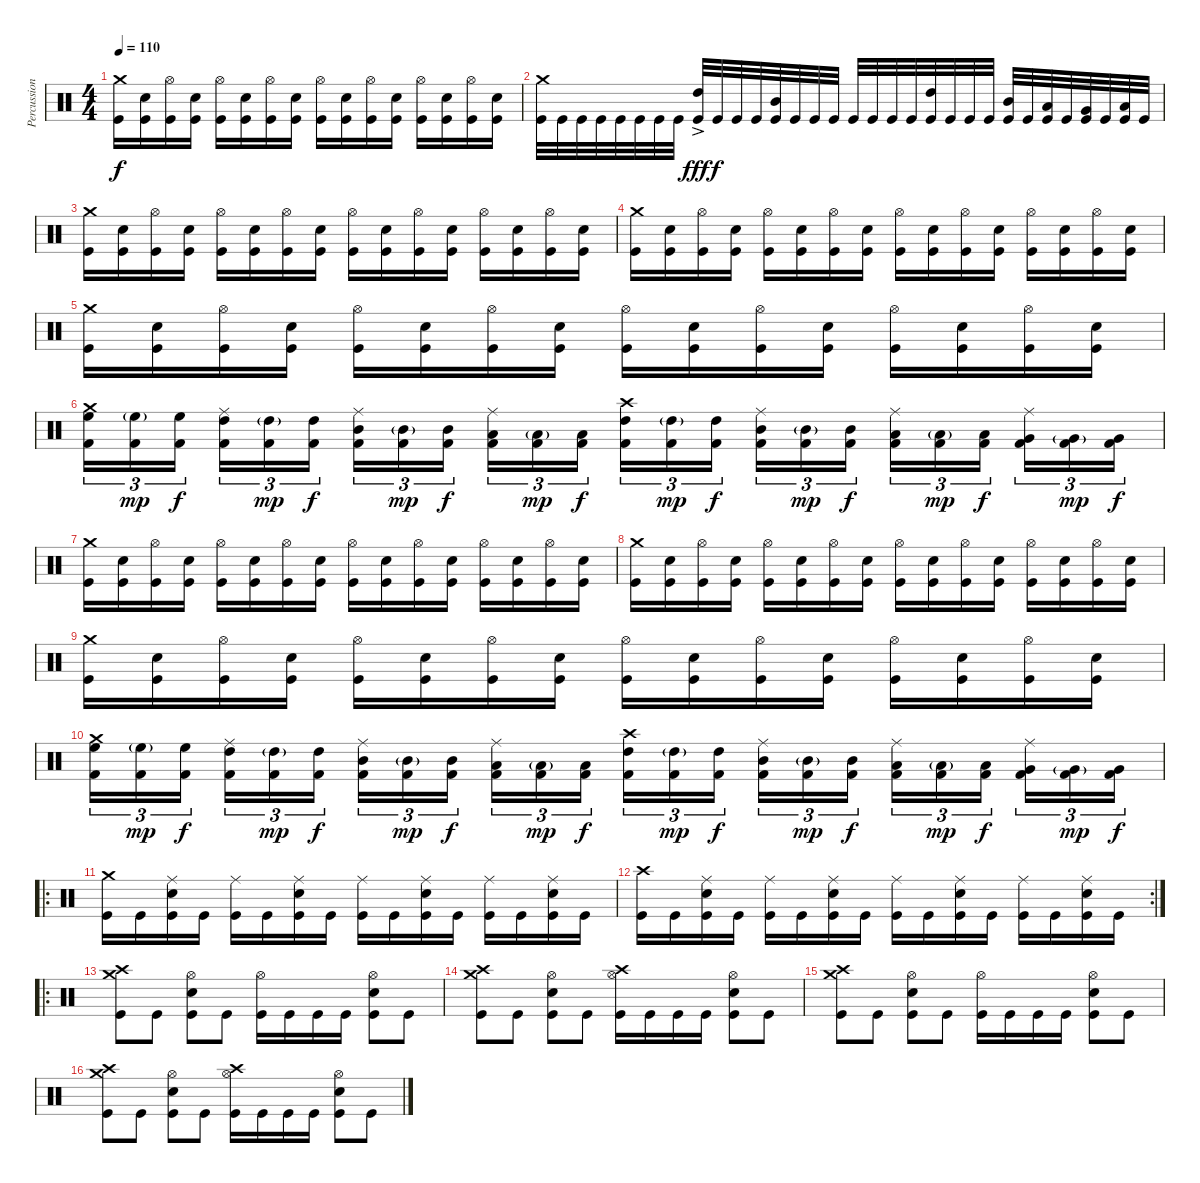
\track ("Percussion" "Percussion") {instrument percussion}
\staff {score}
\articulation defaults
\ts (4 4)
\tempo 110
\clef neutral
\ks c
("Crash medium (hit)" "Kick (hit)").16{dy f} ("Electric Snare (hit)" "Kick (hit)").16 ("Hi-Hat (open)" "Kick (hit)").16 ("Electric Snare (hit)" "Kick (hit)").16 ("Hi-Hat (open)" "Kick (hit)").16 ("Electric Snare (hit)" "Kick (hit)").16 ("Hi-Hat (open)" "Kick (hit)").16 ("Electric Snare (hit)" "Kick (hit)").16 ("Hi-Hat (open)" "Kick (hit)").16 ("Electric Snare (hit)" "Kick (hit)").16 ("Hi-Hat (open)" "Kick (hit)").16 ("Electric Snare (hit)" "Kick (hit)").16 ("Hi-Hat (open)" "Kick (hit)").16 ("Electric Snare (hit)" "Kick (hit)").16 ("Hi-Hat (open)" "Kick (hit)").16 ("Electric Snare (hit)" "Kick (hit)").16 |
("Crash medium (hit)" "Kick (hit)").32 "Kick (hit)".32 "Kick (hit)".32 "Kick (hit)".32 "Kick (hit)".32 "Kick (hit)".32 "Kick (hit)".32 "Kick (hit)".32 ("High Tom (hit)"{ac} "Kick (hit)").32{dy fff} "Kick (hit)".32{dy f} "Kick (hit)".32 "Kick (hit)".32 ("Mid Tom (hit)" "Kick (hit)").32 "Kick (hit)".32 "Kick (hit)".32 "Kick (hit)".32 "Kick (hit)".32 "Kick (hit)".32 "Kick (hit)".32 "Kick (hit)".32 ("High Tom (hit)" "Kick (hit)").32 "Kick (hit)".32 "Kick (hit)".32 "Kick (hit)".32 ("Mid Tom (hit)" "Kick (hit)").32 "Kick (hit)".32 ("Low Tom (hit)" "Kick (hit)").32 "Kick (hit)".32 ("Very Low Tom (hit)" "Kick (hit)").32 "Kick (hit)".32 ("Low Floor Tom (hit)" "Kick (hit)").32 "Kick (hit)".32 |
("Crash medium (hit)" "Kick (hit)").16 ("Electric Snare (hit)" "Kick (hit)").16 ("Hi-Hat (open)" "Kick (hit)").16 ("Electric Snare (hit)" "Kick (hit)").16 ("Hi-Hat (open)" "Kick (hit)").16 ("Electric Snare (hit)" "Kick (hit)").16 ("Hi-Hat (open)" "Kick (hit)").16 ("Electric Snare (hit)" "Kick (hit)").16 ("Hi-Hat (open)" "Kick (hit)").16 ("Electric Snare (hit)" "Kick (hit)").16 ("Hi-Hat (open)" "Kick (hit)").16 ("Electric Snare (hit)" "Kick (hit)").16 ("Hi-Hat (open)" "Kick (hit)").16 ("Electric Snare (hit)" "Kick (hit)").16 ("Hi-Hat (open)" "Kick (hit)").16 ("Electric Snare (hit)" "Kick (hit)").16 |
("Crash medium (hit)" "Kick (hit)").16 ("Electric Snare (hit)" "Kick (hit)").16 ("Hi-Hat (open)" "Kick (hit)").16 ("Electric Snare (hit)" "Kick (hit)").16 ("Hi-Hat (open)" "Kick (hit)").16 ("Electric Snare (hit)" "Kick (hit)").16 ("Hi-Hat (open)" "Kick (hit)").16 ("Electric Snare (hit)" "Kick (hit)").16 ("Hi-Hat (open)" "Kick (hit)").16 ("Electric Snare (hit)" "Kick (hit)").16 ("Hi-Hat (open)" "Kick (hit)").16 ("Electric Snare (hit)" "Kick (hit)").16 ("Hi-Hat (open)" "Kick (hit)").16 ("Electric Snare (hit)" "Kick (hit)").16 ("Hi-Hat (open)" "Kick (hit)").16 ("Electric Snare (hit)" "Kick (hit)").16 |
("Crash medium (hit)" "Kick (hit)").16 ("Electric Snare (hit)" "Kick (hit)").16 ("Hi-Hat (open)" "Kick (hit)").16 ("Electric Snare (hit)" "Kick (hit)").16 ("Hi-Hat (open)" "Kick (hit)").16 ("Electric Snare (hit)" "Kick (hit)").16 ("Hi-Hat (open)" "Kick (hit)").16 ("Electric Snare (hit)" "Kick (hit)").16 ("Hi-Hat (open)" "Kick (hit)").16 ("Electric Snare (hit)" "Kick (hit)").16 ("Hi-Hat (open)" "Kick (hit)").16 ("Electric Snare (hit)" "Kick (hit)").16 ("Hi-Hat (open)" "Kick (hit)").16 ("Electric Snare (hit)" "Kick (hit)").16 ("Hi-Hat (open)" "Kick (hit)").16 ("Electric Snare (hit)" "Kick (hit)").16 |
("Crash medium (hit)" "High Floor Tom (hit)" "Kick (hit) 2").16{tu (3 2)} ("High Floor Tom (hit)"{g} "Kick (hit) 2").16{tu (3 2) dy mp} ("High Floor Tom (hit)" "Kick (hit) 2").16{tu (3 2) dy f} ("Ride (middle)" "High Tom (hit)" "Kick (hit) 2").16{tu (3 2)} ("High Tom (hit)"{g} "Kick (hit) 2").16{tu (3 2) dy mp} ("High Tom (hit)" "Kick (hit) 2").16{tu (3 2) dy f} ("Ride (middle)" "Mid Tom (hit)" "Kick (hit) 2").16{tu (3 2)} ("Mid Tom (hit)"{g} "Kick (hit) 2").16{tu (3 2) dy mp} ("Mid Tom (hit)" "Kick (hit) 2").16{tu (3 2) dy f} ("Ride (middle)" "Low Tom (hit)" "Kick (hit) 2").16{tu (3 2)} ("Low Tom (hit)"{g} "Kick (hit) 2").16{tu (3 2) dy mp} ("Low Tom (hit)" "Kick (hit) 2").16{tu (3 2) dy f} ("Crash high (hit)" "High Tom (hit)" "Kick (hit) 2").16{tu (3 2)} ("High Tom (hit)"{g} "Kick (hit) 2").16{tu (3 2) dy mp} ("High Tom (hit)" "Kick (hit) 2").16{tu (3 2) dy f} ("Ride (middle)" "Mid Tom (hit)" "Kick (hit) 2").16{tu (3 2)} ("Mid Tom (hit)"{g} "Kick (hit) 2").16{tu (3 2) dy mp} ("Mid Tom (hit)" "Kick (hit) 2").16{tu (3 2) dy f} ("Ride (middle)" "Low Tom (hit)" "Kick (hit) 2").16{tu (3 2)} ("Low Tom (hit)"{g} "Kick (hit) 2").16{tu (3 2) dy mp} ("Low Tom (hit)" "Kick (hit) 2").16{tu (3 2) dy f} ("Ride (middle)" "Very Low Tom (hit)" "Kick (hit) 2").16{tu (3 2)} ("Very Low Tom (hit)"{g} "Kick (hit) 2").16{tu (3 2) dy mp} ("Very Low Tom (hit)" "Kick (hit) 2").16{tu (3 2) dy f} |
("Crash medium (hit)" "Kick (hit)").16 ("Electric Snare (hit)" "Kick (hit)").16 ("Hi-Hat (open)" "Kick (hit)").16 ("Electric Snare (hit)" "Kick (hit)").16 ("Hi-Hat (open)" "Kick (hit)").16 ("Electric Snare (hit)" "Kick (hit)").16 ("Hi-Hat (open)" "Kick (hit)").16 ("Electric Snare (hit)" "Kick (hit)").16 ("Hi-Hat (open)" "Kick (hit)").16 ("Electric Snare (hit)" "Kick (hit)").16 ("Hi-Hat (open)" "Kick (hit)").16 ("Electric Snare (hit)" "Kick (hit)").16 ("Hi-Hat (open)" "Kick (hit)").16 ("Electric Snare (hit)" "Kick (hit)").16 ("Hi-Hat (open)" "Kick (hit)").16 ("Electric Snare (hit)" "Kick (hit)").16 |
("Crash medium (hit)" "Kick (hit)").16 ("Electric Snare (hit)" "Kick (hit)").16 ("Hi-Hat (open)" "Kick (hit)").16 ("Electric Snare (hit)" "Kick (hit)").16 ("Hi-Hat (open)" "Kick (hit)").16 ("Electric Snare (hit)" "Kick (hit)").16 ("Hi-Hat (open)" "Kick (hit)").16 ("Electric Snare (hit)" "Kick (hit)").16 ("Hi-Hat (open)" "Kick (hit)").16 ("Electric Snare (hit)" "Kick (hit)").16 ("Hi-Hat (open)" "Kick (hit)").16 ("Electric Snare (hit)" "Kick (hit)").16 ("Hi-Hat (open)" "Kick (hit)").16 ("Electric Snare (hit)" "Kick (hit)").16 ("Hi-Hat (open)" "Kick (hit)").16 ("Electric Snare (hit)" "Kick (hit)").16 |
("Crash medium (hit)" "Kick (hit)").16 ("Electric Snare (hit)" "Kick (hit)").16 ("Hi-Hat (open)" "Kick (hit)").16 ("Electric Snare (hit)" "Kick (hit)").16 ("Hi-Hat (open)" "Kick (hit)").16 ("Electric Snare (hit)" "Kick (hit)").16 ("Hi-Hat (open)" "Kick (hit)").16 ("Electric Snare (hit)" "Kick (hit)").16 ("Hi-Hat (open)" "Kick (hit)").16 ("Electric Snare (hit)" "Kick (hit)").16 ("Hi-Hat (open)" "Kick (hit)").16 ("Electric Snare (hit)" "Kick (hit)").16 ("Hi-Hat (open)" "Kick (hit)").16 ("Electric Snare (hit)" "Kick (hit)").16 ("Hi-Hat (open)" "Kick (hit)").16 ("Electric Snare (hit)" "Kick (hit)").16 |
("Crash medium (hit)" "High Floor Tom (hit)" "Kick (hit) 2").16{tu (3 2)} ("High Floor Tom (hit)"{g} "Kick (hit) 2").16{tu (3 2) dy mp} ("High Floor Tom (hit)" "Kick (hit) 2").16{tu (3 2) dy f} ("Ride (middle)" "High Tom (hit)" "Kick (hit) 2").16{tu (3 2)} ("High Tom (hit)"{g} "Kick (hit) 2").16{tu (3 2) dy mp} ("High Tom (hit)" "Kick (hit) 2").16{tu (3 2) dy f} ("Ride (middle)" "Mid Tom (hit)" "Kick (hit) 2").16{tu (3 2)} ("Mid Tom (hit)"{g} "Kick (hit) 2").16{tu (3 2) dy mp} ("Mid Tom (hit)" "Kick (hit) 2").16{tu (3 2) dy f} ("Ride (middle)" "Low Tom (hit)" "Kick (hit) 2").16{tu (3 2)} ("Low Tom (hit)"{g} "Kick (hit) 2").16{tu (3 2) dy mp} ("Low Tom (hit)" "Kick (hit) 2").16{tu (3 2) dy f} ("Crash high (hit)" "High Tom (hit)" "Kick (hit) 2").16{tu (3 2)} ("High Tom (hit)"{g} "Kick (hit) 2").16{tu (3 2) dy mp} ("High Tom (hit)" "Kick (hit) 2").16{tu (3 2) dy f} ("Ride (middle)" "Mid Tom (hit)" "Kick (hit) 2").16{tu (3 2)} ("Mid Tom (hit)"{g} "Kick (hit) 2").16{tu (3 2) dy mp} ("Mid Tom (hit)" "Kick (hit) 2").16{tu (3 2) dy f} ("Ride (middle)" "Low Tom (hit)" "Kick (hit) 2").16{tu (3 2)} ("Low Tom (hit)"{g} "Kick (hit) 2").16{tu (3 2) dy mp} ("Low Tom (hit)" "Kick (hit) 2").16{tu (3 2) dy f} ("Ride (middle)" "Very Low Tom (hit)" "Kick (hit) 2").16{tu (3 2)} ("Very Low Tom (hit)"{g} "Kick (hit) 2").16{tu (3 2) dy mp} ("Very Low Tom (hit)" "Kick (hit) 2").16{tu (3 2) dy f} |
\ro
("Crash medium (hit)" "Kick (hit)").16 "Kick (hit)".16 ("Ride (middle)" "Electric Snare (hit)" "Kick (hit)").16 "Kick (hit)".16 ("Ride (middle)" "Kick (hit)").16 "Kick (hit)".16 ("Ride (middle)" "Electric Snare (hit)" "Kick (hit)").16 "Kick (hit)".16 ("Ride (middle)" "Kick (hit)").16 "Kick (hit)".16 ("Ride (middle)" "Electric Snare (hit)" "Kick (hit)").16 "Kick (hit)".16 ("Ride (middle)" "Kick (hit)").16 "Kick (hit)".16 ("Ride (middle)" "Electric Snare (hit)" "Kick (hit)").16 "Kick (hit)".16 |
\rc 2
("Crash high (hit)" "Kick (hit)").16 "Kick (hit)".16 ("Ride (middle)" "Electric Snare (hit)" "Kick (hit)").16 "Kick (hit)".16 ("Ride (middle)" "Kick (hit)").16 "Kick (hit)".16 ("Ride (middle)" "Electric Snare (hit)" "Kick (hit)").16 "Kick (hit)".16 ("Ride (middle)" "Kick (hit)").16 "Kick (hit)".16 ("Ride (middle)" "Electric Snare (hit)" "Kick (hit)").16 "Kick (hit)".16 ("Ride (middle)" "Kick (hit)").16 "Kick (hit)".16 ("Ride (middle)" "Electric Snare (hit)" "Kick (hit)").16 "Kick (hit)".16 |
\ro
("Crash medium (hit)" "Crash high (hit)" "Kick (hit)").8 "Kick (hit)".8 ("Hi-Hat (open)" "Electric Snare (hit)" "Kick (hit)").8 "Kick (hit)".8 ("Hi-Hat (open)" "Kick (hit)").16 "Kick (hit)".16 "Kick (hit)".16 "Kick (hit)".16 ("Hi-Hat (open)" "Electric Snare (hit)" "Kick (hit)").8 "Kick (hit)".8 |
("Crash medium (hit)" "Crash high (hit)" "Kick (hit)").8 "Kick (hit)".8 ("Hi-Hat (open)" "Electric Snare (hit)" "Kick (hit)").8 "Kick (hit)".8 ("Hi-Hat (open)" "Crash high (hit)" "Kick (hit)").16 "Kick (hit)".16 "Kick (hit)".16 "Kick (hit)".16 ("Hi-Hat (open)" "Electric Snare (hit)" "Kick (hit)").8 "Kick (hit)".8 |
("Crash medium (hit)" "Crash high (hit)" "Kick (hit)").8 "Kick (hit)".8 ("Hi-Hat (open)" "Electric Snare (hit)" "Kick (hit)").8 "Kick (hit)".8 ("Hi-Hat (open)" "Kick (hit)").16 "Kick (hit)".16 "Kick (hit)".16 "Kick (hit)".16 ("Hi-Hat (open)" "Electric Snare (hit)" "Kick (hit)").8 "Kick (hit)".8 |
("Crash medium (hit)" "Crash high (hit)" "Kick (hit)").8 "Kick (hit)".8 ("Hi-Hat (open)" "Electric Snare (hit)" "Kick (hit)").8 "Kick (hit)".8 ("Hi-Hat (open)" "Crash high (hit)" "Kick (hit)").16 "Kick (hit)".16 "Kick (hit)".16 "Kick (hit)".16 ("Hi-Hat (open)" "Electric Snare (hit)" "Kick (hit)").8 "Kick (hit)".8
